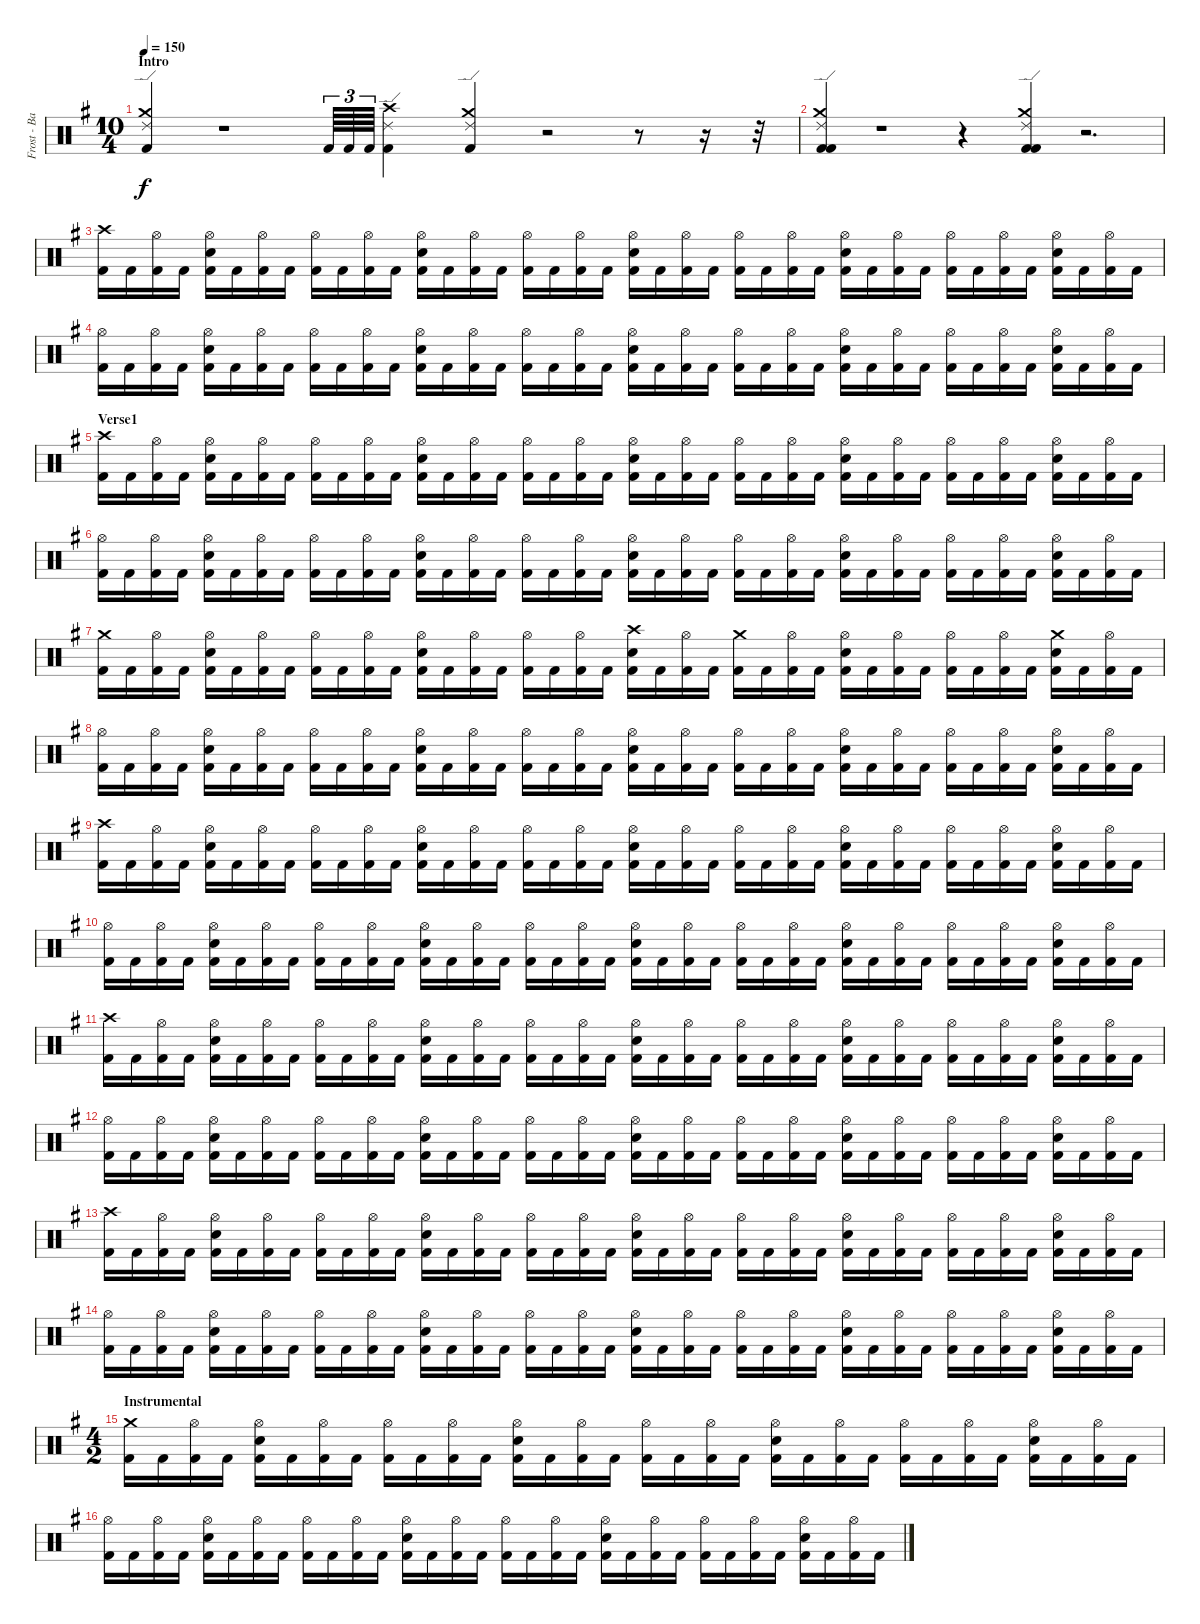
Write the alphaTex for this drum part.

\track ("Frost - Battery" "Frost - Ba") {instrument percussion}
\staff {score}
\articulation defaults
\ts (10 4)
\section ("" "Intro")
\tempo 150
\clef neutral
\ks eminor
("Kick (hit) 2" "Crash medium (hit)" "Ride (edge) 2").4{dy f} r.1 "Kick (hit) 2".64{tu (3 2)} "Kick (hit) 2".64{tu (3 2)} "Kick (hit) 2".64{tu (3 2)} ("Kick (hit) 2" "Crash high (hit)" "Ride (edge) 2").4 ("Kick (hit) 2" "Crash medium (hit)" "Ride (edge) 2").4 r.2 r.8 r.16 r.32 |
("Kick (hit) 2" "Kick (hit) 2" "Ride (edge) 2" "Crash medium (hit)").4 r.1 r.4 ("Kick (hit) 2" "Kick (hit) 2" "Ride (edge) 2" "Crash medium (hit)").4 r.2{d} |
("Kick (hit) 2" "Crash high (hit)").16 "Kick (hit) 2".16 ("Kick (hit) 2" "Hi-Hat (open)").16 "Kick (hit) 2".16 ("Kick (hit) 2" "Hi-Hat (open)" "Electric Snare (hit)").16 "Kick (hit) 2".16 ("Kick (hit) 2" "Hi-Hat (open)").16 "Kick (hit) 2".16 ("Kick (hit) 2" "Hi-Hat (open)").16 "Kick (hit) 2".16 ("Kick (hit) 2" "Hi-Hat (open)").16 "Kick (hit) 2".16 ("Kick (hit) 2" "Hi-Hat (open)" "Electric Snare (hit)").16 "Kick (hit) 2".16 ("Kick (hit) 2" "Hi-Hat (open)").16 "Kick (hit) 2".16 ("Kick (hit) 2" "Hi-Hat (open)").16 "Kick (hit) 2".16 ("Kick (hit) 2" "Hi-Hat (open)").16 "Kick (hit) 2".16 ("Kick (hit) 2" "Hi-Hat (open)" "Electric Snare (hit)").16 "Kick (hit) 2".16 ("Kick (hit) 2" "Hi-Hat (open)").16 "Kick (hit) 2".16 ("Kick (hit) 2" "Hi-Hat (open)").16 "Kick (hit) 2".16 ("Kick (hit) 2" "Hi-Hat (open)").16 "Kick (hit) 2".16 ("Kick (hit) 2" "Hi-Hat (open)" "Electric Snare (hit)").16 "Kick (hit) 2".16 ("Kick (hit) 2" "Hi-Hat (open)").16 "Kick (hit) 2".16 ("Kick (hit) 2" "Hi-Hat (open)").16 "Kick (hit) 2".16 ("Kick (hit) 2" "Hi-Hat (open)").16 "Kick (hit) 2".16 ("Kick (hit) 2" "Hi-Hat (open)" "Electric Snare (hit)").16 "Kick (hit) 2".16 ("Kick (hit) 2" "Hi-Hat (open)").16 "Kick (hit) 2".16 |
("Kick (hit) 2" "Hi-Hat (open)").16 "Kick (hit) 2".16 ("Kick (hit) 2" "Hi-Hat (open)").16 "Kick (hit) 2".16 ("Kick (hit) 2" "Hi-Hat (open)" "Electric Snare (hit)").16 "Kick (hit) 2".16 ("Kick (hit) 2" "Hi-Hat (open)").16 "Kick (hit) 2".16 ("Kick (hit) 2" "Hi-Hat (open)").16 "Kick (hit) 2".16 ("Kick (hit) 2" "Hi-Hat (open)").16 "Kick (hit) 2".16 ("Kick (hit) 2" "Hi-Hat (open)" "Electric Snare (hit)").16 "Kick (hit) 2".16 ("Kick (hit) 2" "Hi-Hat (open)").16 "Kick (hit) 2".16 ("Kick (hit) 2" "Hi-Hat (open)").16 "Kick (hit) 2".16 ("Kick (hit) 2" "Hi-Hat (open)").16 "Kick (hit) 2".16 ("Kick (hit) 2" "Hi-Hat (open)" "Electric Snare (hit)").16 "Kick (hit) 2".16 ("Kick (hit) 2" "Hi-Hat (open)").16 "Kick (hit) 2".16 ("Kick (hit) 2" "Hi-Hat (open)").16 "Kick (hit) 2".16 ("Kick (hit) 2" "Hi-Hat (open)").16 "Kick (hit) 2".16 ("Kick (hit) 2" "Hi-Hat (open)" "Electric Snare (hit)").16 "Kick (hit) 2".16 ("Kick (hit) 2" "Hi-Hat (open)").16 "Kick (hit) 2".16 ("Kick (hit) 2" "Hi-Hat (open)").16 "Kick (hit) 2".16 ("Kick (hit) 2" "Hi-Hat (open)").16 "Kick (hit) 2".16 ("Kick (hit) 2" "Hi-Hat (open)" "Electric Snare (hit)").16 "Kick (hit) 2".16 ("Kick (hit) 2" "Hi-Hat (open)").16 "Kick (hit) 2".16 |
\section ("" "Verse1")
("Kick (hit) 2" "Crash high (hit)").16 "Kick (hit) 2".16 ("Kick (hit) 2" "Hi-Hat (open)").16 "Kick (hit) 2".16 ("Kick (hit) 2" "Hi-Hat (open)" "Electric Snare (hit)").16 "Kick (hit) 2".16 ("Kick (hit) 2" "Hi-Hat (open)").16 "Kick (hit) 2".16 ("Kick (hit) 2" "Hi-Hat (open)").16 "Kick (hit) 2".16 ("Kick (hit) 2" "Hi-Hat (open)").16 "Kick (hit) 2".16 ("Kick (hit) 2" "Hi-Hat (open)" "Electric Snare (hit)").16 "Kick (hit) 2".16 ("Kick (hit) 2" "Hi-Hat (open)").16 "Kick (hit) 2".16 ("Kick (hit) 2" "Hi-Hat (open)").16 "Kick (hit) 2".16 ("Kick (hit) 2" "Hi-Hat (open)").16 "Kick (hit) 2".16 ("Kick (hit) 2" "Hi-Hat (open)" "Electric Snare (hit)").16 "Kick (hit) 2".16 ("Kick (hit) 2" "Hi-Hat (open)").16 "Kick (hit) 2".16 ("Kick (hit) 2" "Hi-Hat (open)").16 "Kick (hit) 2".16 ("Kick (hit) 2" "Hi-Hat (open)").16 "Kick (hit) 2".16 ("Kick (hit) 2" "Hi-Hat (open)" "Electric Snare (hit)").16 "Kick (hit) 2".16 ("Kick (hit) 2" "Hi-Hat (open)").16 "Kick (hit) 2".16 ("Kick (hit) 2" "Hi-Hat (open)").16 "Kick (hit) 2".16 ("Kick (hit) 2" "Hi-Hat (open)").16 "Kick (hit) 2".16 ("Kick (hit) 2" "Hi-Hat (open)" "Electric Snare (hit)").16 "Kick (hit) 2".16 ("Kick (hit) 2" "Hi-Hat (open)").16 "Kick (hit) 2".16 |
("Kick (hit) 2" "Hi-Hat (open)").16 "Kick (hit) 2".16 ("Kick (hit) 2" "Hi-Hat (open)").16 "Kick (hit) 2".16 ("Kick (hit) 2" "Hi-Hat (open)" "Electric Snare (hit)").16 "Kick (hit) 2".16 ("Kick (hit) 2" "Hi-Hat (open)").16 "Kick (hit) 2".16 ("Kick (hit) 2" "Hi-Hat (open)").16 "Kick (hit) 2".16 ("Kick (hit) 2" "Hi-Hat (open)").16 "Kick (hit) 2".16 ("Kick (hit) 2" "Hi-Hat (open)" "Electric Snare (hit)").16 "Kick (hit) 2".16 ("Kick (hit) 2" "Hi-Hat (open)").16 "Kick (hit) 2".16 ("Kick (hit) 2" "Hi-Hat (open)").16 "Kick (hit) 2".16 ("Kick (hit) 2" "Hi-Hat (open)").16 "Kick (hit) 2".16 ("Kick (hit) 2" "Hi-Hat (open)" "Electric Snare (hit)").16 "Kick (hit) 2".16 ("Kick (hit) 2" "Hi-Hat (open)").16 "Kick (hit) 2".16 ("Kick (hit) 2" "Hi-Hat (open)").16 "Kick (hit) 2".16 ("Kick (hit) 2" "Hi-Hat (open)").16 "Kick (hit) 2".16 ("Kick (hit) 2" "Hi-Hat (open)" "Electric Snare (hit)").16 "Kick (hit) 2".16 ("Kick (hit) 2" "Hi-Hat (open)").16 "Kick (hit) 2".16 ("Kick (hit) 2" "Hi-Hat (open)").16 "Kick (hit) 2".16 ("Kick (hit) 2" "Hi-Hat (open)").16 "Kick (hit) 2".16 ("Kick (hit) 2" "Hi-Hat (open)" "Electric Snare (hit)").16 "Kick (hit) 2".16 ("Kick (hit) 2" "Hi-Hat (open)").16 "Kick (hit) 2".16 |
("Kick (hit) 2" "Crash medium (hit)").16 "Kick (hit) 2".16 ("Kick (hit) 2" "Hi-Hat (open)").16 "Kick (hit) 2".16 ("Kick (hit) 2" "Hi-Hat (open)" "Electric Snare (hit)").16 "Kick (hit) 2".16 ("Kick (hit) 2" "Hi-Hat (open)").16 "Kick (hit) 2".16 ("Kick (hit) 2" "Hi-Hat (open)").16 "Kick (hit) 2".16 ("Kick (hit) 2" "Hi-Hat (open)").16 "Kick (hit) 2".16 ("Kick (hit) 2" "Hi-Hat (open)" "Electric Snare (hit)").16 "Kick (hit) 2".16 ("Kick (hit) 2" "Hi-Hat (open)").16 "Kick (hit) 2".16 ("Kick (hit) 2" "Hi-Hat (open)").16 "Kick (hit) 2".16 ("Kick (hit) 2" "Hi-Hat (open)").16 "Kick (hit) 2".16 ("Kick (hit) 2" "Crash high (hit)" "Electric Snare (hit)").16 "Kick (hit) 2".16 ("Kick (hit) 2" "Hi-Hat (open)").16 "Kick (hit) 2".16 ("Kick (hit) 2" "Crash medium (hit)").16 "Kick (hit) 2".16 ("Kick (hit) 2" "Hi-Hat (open)").16 "Kick (hit) 2".16 ("Kick (hit) 2" "Hi-Hat (open)" "Electric Snare (hit)").16 "Kick (hit) 2".16 ("Kick (hit) 2" "Hi-Hat (open)").16 "Kick (hit) 2".16 ("Kick (hit) 2" "Hi-Hat (open)").16 "Kick (hit) 2".16 ("Kick (hit) 2" "Hi-Hat (open)").16 "Kick (hit) 2".16 ("Kick (hit) 2" "Crash medium (hit)" "Electric Snare (hit)").16 "Kick (hit) 2".16 ("Kick (hit) 2" "Hi-Hat (open)").16 "Kick (hit) 2".16 |
("Kick (hit) 2" "Hi-Hat (open)").16 "Kick (hit) 2".16 ("Kick (hit) 2" "Hi-Hat (open)").16 "Kick (hit) 2".16 ("Kick (hit) 2" "Hi-Hat (open)" "Electric Snare (hit)").16 "Kick (hit) 2".16 ("Kick (hit) 2" "Hi-Hat (open)").16 "Kick (hit) 2".16 ("Kick (hit) 2" "Hi-Hat (open)").16 "Kick (hit) 2".16 ("Kick (hit) 2" "Hi-Hat (open)").16 "Kick (hit) 2".16 ("Kick (hit) 2" "Hi-Hat (open)" "Electric Snare (hit)").16 "Kick (hit) 2".16 ("Kick (hit) 2" "Hi-Hat (open)").16 "Kick (hit) 2".16 ("Kick (hit) 2" "Hi-Hat (open)").16 "Kick (hit) 2".16 ("Kick (hit) 2" "Hi-Hat (open)").16 "Kick (hit) 2".16 ("Kick (hit) 2" "Hi-Hat (open)" "Electric Snare (hit)").16 "Kick (hit) 2".16 ("Kick (hit) 2" "Hi-Hat (open)").16 "Kick (hit) 2".16 ("Kick (hit) 2" "Hi-Hat (open)").16 "Kick (hit) 2".16 ("Kick (hit) 2" "Hi-Hat (open)").16 "Kick (hit) 2".16 ("Kick (hit) 2" "Hi-Hat (open)" "Electric Snare (hit)").16 "Kick (hit) 2".16 ("Kick (hit) 2" "Hi-Hat (open)").16 "Kick (hit) 2".16 ("Kick (hit) 2" "Hi-Hat (open)").16 "Kick (hit) 2".16 ("Kick (hit) 2" "Hi-Hat (open)").16 "Kick (hit) 2".16 ("Kick (hit) 2" "Hi-Hat (open)" "Electric Snare (hit)").16 "Kick (hit) 2".16 ("Kick (hit) 2" "Hi-Hat (open)").16 "Kick (hit) 2".16 |
("Kick (hit) 2" "Crash high (hit)").16 "Kick (hit) 2".16 ("Kick (hit) 2" "Hi-Hat (open)").16 "Kick (hit) 2".16 ("Kick (hit) 2" "Hi-Hat (open)" "Electric Snare (hit)").16 "Kick (hit) 2".16 ("Kick (hit) 2" "Hi-Hat (open)").16 "Kick (hit) 2".16 ("Kick (hit) 2" "Hi-Hat (open)").16 "Kick (hit) 2".16 ("Kick (hit) 2" "Hi-Hat (open)").16 "Kick (hit) 2".16 ("Kick (hit) 2" "Hi-Hat (open)" "Electric Snare (hit)").16 "Kick (hit) 2".16 ("Kick (hit) 2" "Hi-Hat (open)").16 "Kick (hit) 2".16 ("Kick (hit) 2" "Hi-Hat (open)").16 "Kick (hit) 2".16 ("Kick (hit) 2" "Hi-Hat (open)").16 "Kick (hit) 2".16 ("Kick (hit) 2" "Hi-Hat (open)" "Electric Snare (hit)").16 "Kick (hit) 2".16 ("Kick (hit) 2" "Hi-Hat (open)").16 "Kick (hit) 2".16 ("Kick (hit) 2" "Hi-Hat (open)").16 "Kick (hit) 2".16 ("Kick (hit) 2" "Hi-Hat (open)").16 "Kick (hit) 2".16 ("Kick (hit) 2" "Hi-Hat (open)" "Electric Snare (hit)").16 "Kick (hit) 2".16 ("Kick (hit) 2" "Hi-Hat (open)").16 "Kick (hit) 2".16 ("Kick (hit) 2" "Hi-Hat (open)").16 "Kick (hit) 2".16 ("Kick (hit) 2" "Hi-Hat (open)").16 "Kick (hit) 2".16 ("Kick (hit) 2" "Hi-Hat (open)" "Electric Snare (hit)").16 "Kick (hit) 2".16 ("Kick (hit) 2" "Hi-Hat (open)").16 "Kick (hit) 2".16 |
("Kick (hit) 2" "Hi-Hat (open)").16 "Kick (hit) 2".16 ("Kick (hit) 2" "Hi-Hat (open)").16 "Kick (hit) 2".16 ("Kick (hit) 2" "Hi-Hat (open)" "Electric Snare (hit)").16 "Kick (hit) 2".16 ("Kick (hit) 2" "Hi-Hat (open)").16 "Kick (hit) 2".16 ("Kick (hit) 2" "Hi-Hat (open)").16 "Kick (hit) 2".16 ("Kick (hit) 2" "Hi-Hat (open)").16 "Kick (hit) 2".16 ("Kick (hit) 2" "Hi-Hat (open)" "Electric Snare (hit)").16 "Kick (hit) 2".16 ("Kick (hit) 2" "Hi-Hat (open)").16 "Kick (hit) 2".16 ("Kick (hit) 2" "Hi-Hat (open)").16 "Kick (hit) 2".16 ("Kick (hit) 2" "Hi-Hat (open)").16 "Kick (hit) 2".16 ("Kick (hit) 2" "Hi-Hat (open)" "Electric Snare (hit)").16 "Kick (hit) 2".16 ("Kick (hit) 2" "Hi-Hat (open)").16 "Kick (hit) 2".16 ("Kick (hit) 2" "Hi-Hat (open)").16 "Kick (hit) 2".16 ("Kick (hit) 2" "Hi-Hat (open)").16 "Kick (hit) 2".16 ("Kick (hit) 2" "Hi-Hat (open)" "Electric Snare (hit)").16 "Kick (hit) 2".16 ("Kick (hit) 2" "Hi-Hat (open)").16 "Kick (hit) 2".16 ("Kick (hit) 2" "Hi-Hat (open)").16 "Kick (hit) 2".16 ("Kick (hit) 2" "Hi-Hat (open)").16 "Kick (hit) 2".16 ("Kick (hit) 2" "Hi-Hat (open)" "Electric Snare (hit)").16 "Kick (hit) 2".16 ("Kick (hit) 2" "Hi-Hat (open)").16 "Kick (hit) 2".16 |
("Kick (hit) 2" "Crash high (hit)").16 "Kick (hit) 2".16 ("Kick (hit) 2" "Hi-Hat (open)").16 "Kick (hit) 2".16 ("Kick (hit) 2" "Hi-Hat (open)" "Electric Snare (hit)").16 "Kick (hit) 2".16 ("Kick (hit) 2" "Hi-Hat (open)").16 "Kick (hit) 2".16 ("Kick (hit) 2" "Hi-Hat (open)").16 "Kick (hit) 2".16 ("Kick (hit) 2" "Hi-Hat (open)").16 "Kick (hit) 2".16 ("Kick (hit) 2" "Hi-Hat (open)" "Electric Snare (hit)").16 "Kick (hit) 2".16 ("Kick (hit) 2" "Hi-Hat (open)").16 "Kick (hit) 2".16 ("Kick (hit) 2" "Hi-Hat (open)").16 "Kick (hit) 2".16 ("Kick (hit) 2" "Hi-Hat (open)").16 "Kick (hit) 2".16 ("Kick (hit) 2" "Hi-Hat (open)" "Electric Snare (hit)").16 "Kick (hit) 2".16 ("Kick (hit) 2" "Hi-Hat (open)").16 "Kick (hit) 2".16 ("Kick (hit) 2" "Hi-Hat (open)").16 "Kick (hit) 2".16 ("Kick (hit) 2" "Hi-Hat (open)").16 "Kick (hit) 2".16 ("Kick (hit) 2" "Hi-Hat (open)" "Electric Snare (hit)").16 "Kick (hit) 2".16 ("Kick (hit) 2" "Hi-Hat (open)").16 "Kick (hit) 2".16 ("Kick (hit) 2" "Hi-Hat (open)").16 "Kick (hit) 2".16 ("Kick (hit) 2" "Hi-Hat (open)").16 "Kick (hit) 2".16 ("Kick (hit) 2" "Hi-Hat (open)" "Electric Snare (hit)").16 "Kick (hit) 2".16 ("Kick (hit) 2" "Hi-Hat (open)").16 "Kick (hit) 2".16 |
("Kick (hit) 2" "Hi-Hat (open)").16 "Kick (hit) 2".16 ("Kick (hit) 2" "Hi-Hat (open)").16 "Kick (hit) 2".16 ("Kick (hit) 2" "Hi-Hat (open)" "Electric Snare (hit)").16 "Kick (hit) 2".16 ("Kick (hit) 2" "Hi-Hat (open)").16 "Kick (hit) 2".16 ("Kick (hit) 2" "Hi-Hat (open)").16 "Kick (hit) 2".16 ("Kick (hit) 2" "Hi-Hat (open)").16 "Kick (hit) 2".16 ("Kick (hit) 2" "Hi-Hat (open)" "Electric Snare (hit)").16 "Kick (hit) 2".16 ("Kick (hit) 2" "Hi-Hat (open)").16 "Kick (hit) 2".16 ("Kick (hit) 2" "Hi-Hat (open)").16 "Kick (hit) 2".16 ("Kick (hit) 2" "Hi-Hat (open)").16 "Kick (hit) 2".16 ("Kick (hit) 2" "Hi-Hat (open)" "Electric Snare (hit)").16 "Kick (hit) 2".16 ("Kick (hit) 2" "Hi-Hat (open)").16 "Kick (hit) 2".16 ("Kick (hit) 2" "Hi-Hat (open)").16 "Kick (hit) 2".16 ("Kick (hit) 2" "Hi-Hat (open)").16 "Kick (hit) 2".16 ("Kick (hit) 2" "Hi-Hat (open)" "Electric Snare (hit)").16 "Kick (hit) 2".16 ("Kick (hit) 2" "Hi-Hat (open)").16 "Kick (hit) 2".16 ("Kick (hit) 2" "Hi-Hat (open)").16 "Kick (hit) 2".16 ("Kick (hit) 2" "Hi-Hat (open)").16 "Kick (hit) 2".16 ("Kick (hit) 2" "Hi-Hat (open)" "Electric Snare (hit)").16 "Kick (hit) 2".16 ("Kick (hit) 2" "Hi-Hat (open)").16 "Kick (hit) 2".16 |
("Kick (hit) 2" "Crash high (hit)").16 "Kick (hit) 2".16 ("Kick (hit) 2" "Hi-Hat (open)").16 "Kick (hit) 2".16 ("Kick (hit) 2" "Hi-Hat (open)" "Electric Snare (hit)").16 "Kick (hit) 2".16 ("Kick (hit) 2" "Hi-Hat (open)").16 "Kick (hit) 2".16 ("Kick (hit) 2" "Hi-Hat (open)").16 "Kick (hit) 2".16 ("Kick (hit) 2" "Hi-Hat (open)").16 "Kick (hit) 2".16 ("Kick (hit) 2" "Hi-Hat (open)" "Electric Snare (hit)").16 "Kick (hit) 2".16 ("Kick (hit) 2" "Hi-Hat (open)").16 "Kick (hit) 2".16 ("Kick (hit) 2" "Hi-Hat (open)").16 "Kick (hit) 2".16 ("Kick (hit) 2" "Hi-Hat (open)").16 "Kick (hit) 2".16 ("Kick (hit) 2" "Hi-Hat (open)" "Electric Snare (hit)").16 "Kick (hit) 2".16 ("Kick (hit) 2" "Hi-Hat (open)").16 "Kick (hit) 2".16 ("Kick (hit) 2" "Hi-Hat (open)").16 "Kick (hit) 2".16 ("Kick (hit) 2" "Hi-Hat (open)").16 "Kick (hit) 2".16 ("Kick (hit) 2" "Hi-Hat (open)" "Electric Snare (hit)").16 "Kick (hit) 2".16 ("Kick (hit) 2" "Hi-Hat (open)").16 "Kick (hit) 2".16 ("Kick (hit) 2" "Hi-Hat (open)").16 "Kick (hit) 2".16 ("Kick (hit) 2" "Hi-Hat (open)").16 "Kick (hit) 2".16 ("Kick (hit) 2" "Hi-Hat (open)" "Electric Snare (hit)").16 "Kick (hit) 2".16 ("Kick (hit) 2" "Hi-Hat (open)").16 "Kick (hit) 2".16 |
("Kick (hit) 2" "Hi-Hat (open)").16 "Kick (hit) 2".16 ("Kick (hit) 2" "Hi-Hat (open)").16 "Kick (hit) 2".16 ("Kick (hit) 2" "Hi-Hat (open)" "Electric Snare (hit)").16 "Kick (hit) 2".16 ("Kick (hit) 2" "Hi-Hat (open)").16 "Kick (hit) 2".16 ("Kick (hit) 2" "Hi-Hat (open)").16 "Kick (hit) 2".16 ("Kick (hit) 2" "Hi-Hat (open)").16 "Kick (hit) 2".16 ("Kick (hit) 2" "Hi-Hat (open)" "Electric Snare (hit)").16 "Kick (hit) 2".16 ("Kick (hit) 2" "Hi-Hat (open)").16 "Kick (hit) 2".16 ("Kick (hit) 2" "Hi-Hat (open)").16 "Kick (hit) 2".16 ("Kick (hit) 2" "Hi-Hat (open)").16 "Kick (hit) 2".16 ("Kick (hit) 2" "Hi-Hat (open)" "Electric Snare (hit)").16 "Kick (hit) 2".16 ("Kick (hit) 2" "Hi-Hat (open)").16 "Kick (hit) 2".16 ("Kick (hit) 2" "Hi-Hat (open)").16 "Kick (hit) 2".16 ("Kick (hit) 2" "Hi-Hat (open)").16 "Kick (hit) 2".16 ("Kick (hit) 2" "Hi-Hat (open)" "Electric Snare (hit)").16 "Kick (hit) 2".16 ("Kick (hit) 2" "Hi-Hat (open)").16 "Kick (hit) 2".16 ("Kick (hit) 2" "Hi-Hat (open)").16 "Kick (hit) 2".16 ("Kick (hit) 2" "Hi-Hat (open)").16 "Kick (hit) 2".16 ("Kick (hit) 2" "Hi-Hat (open)" "Electric Snare (hit)").16 "Kick (hit) 2".16 ("Kick (hit) 2" "Hi-Hat (open)").16 "Kick (hit) 2".16 |
\ts (4 2)
\section ("" "Instrumental")
("Kick (hit) 2" "Crash medium (hit)").16 "Kick (hit) 2".16 ("Kick (hit) 2" "Hi-Hat (open)").16 "Kick (hit) 2".16 ("Kick (hit) 2" "Hi-Hat (open)" "Electric Snare (hit)").16 "Kick (hit) 2".16 ("Kick (hit) 2" "Hi-Hat (open)").16 "Kick (hit) 2".16 ("Kick (hit) 2" "Hi-Hat (open)").16 "Kick (hit) 2".16 ("Kick (hit) 2" "Hi-Hat (open)").16 "Kick (hit) 2".16 ("Kick (hit) 2" "Hi-Hat (open)" "Electric Snare (hit)").16 "Kick (hit) 2".16 ("Kick (hit) 2" "Hi-Hat (open)").16 "Kick (hit) 2".16 ("Kick (hit) 2" "Hi-Hat (open)").16 "Kick (hit) 2".16 ("Kick (hit) 2" "Hi-Hat (open)").16 "Kick (hit) 2".16 ("Kick (hit) 2" "Hi-Hat (open)" "Electric Snare (hit)").16 "Kick (hit) 2".16 ("Kick (hit) 2" "Hi-Hat (open)").16 "Kick (hit) 2".16 ("Kick (hit) 2" "Hi-Hat (open)").16 "Kick (hit) 2".16 ("Kick (hit) 2" "Hi-Hat (open)").16 "Kick (hit) 2".16 ("Kick (hit) 2" "Hi-Hat (open)" "Electric Snare (hit)").16 "Kick (hit) 2".16 ("Kick (hit) 2" "Hi-Hat (open)").16 "Kick (hit) 2".16 |
("Kick (hit) 2" "Hi-Hat (open)").16 "Kick (hit) 2".16 ("Kick (hit) 2" "Hi-Hat (open)").16 "Kick (hit) 2".16 ("Kick (hit) 2" "Hi-Hat (open)" "Electric Snare (hit)").16 "Kick (hit) 2".16 ("Kick (hit) 2" "Hi-Hat (open)").16 "Kick (hit) 2".16 ("Kick (hit) 2" "Hi-Hat (open)").16 "Kick (hit) 2".16 ("Kick (hit) 2" "Hi-Hat (open)").16 "Kick (hit) 2".16 ("Kick (hit) 2" "Hi-Hat (open)" "Electric Snare (hit)").16 "Kick (hit) 2".16 ("Kick (hit) 2" "Hi-Hat (open)").16 "Kick (hit) 2".16 ("Kick (hit) 2" "Hi-Hat (open)").16 "Kick (hit) 2".16 ("Kick (hit) 2" "Hi-Hat (open)").16 "Kick (hit) 2".16 ("Kick (hit) 2" "Hi-Hat (open)" "Electric Snare (hit)").16 "Kick (hit) 2".16 ("Kick (hit) 2" "Hi-Hat (open)").16 "Kick (hit) 2".16 ("Kick (hit) 2" "Hi-Hat (open)").16 "Kick (hit) 2".16 ("Kick (hit) 2" "Hi-Hat (open)").16 "Kick (hit) 2".16 ("Kick (hit) 2" "Hi-Hat (open)" "Electric Snare (hit)").16 "Kick (hit) 2".16 ("Kick (hit) 2" "Hi-Hat (open)").16 "Kick (hit) 2".16
